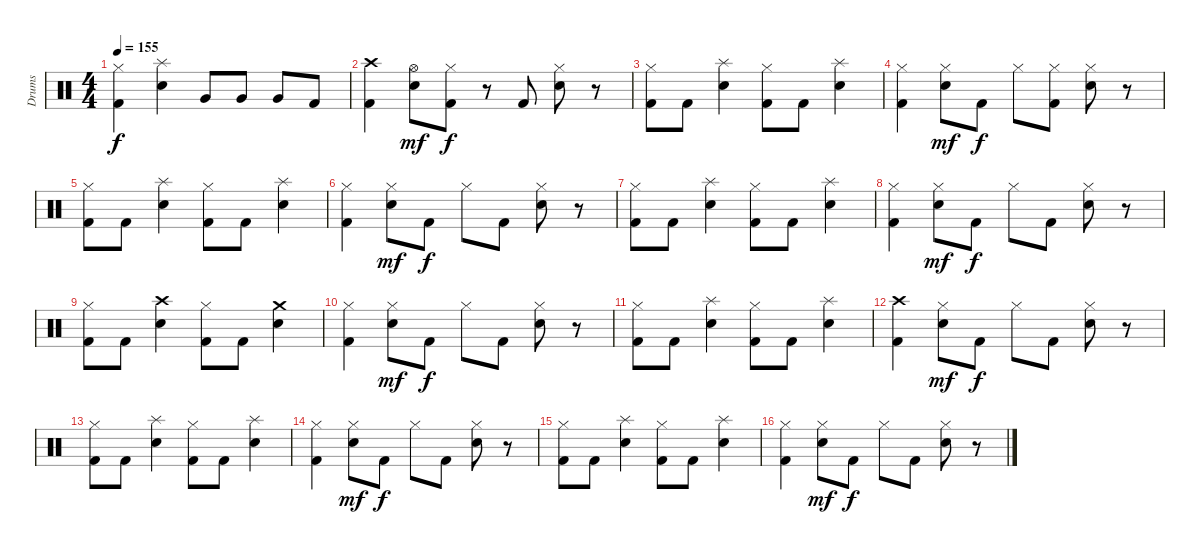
\track ("Drums" "Drums") {instrument percussion}
\staff {score}
\articulation defaults
\ts (4 4)
\tempo 155
\clef neutral
\ks c
("Hi-Hat (closed)" "Kick (hit) 2").4{dy f} ("Splash (hit)" "Snare (hit) 2").4 "Very Low Tom (hit)".8 "Very Low Tom (hit)".8 "Very Low Tom (hit)".8 "Kick (hit) 2".8 |
("Crash high (hit)" "Kick (hit) 2").4 ("Hi-Hat (open)" "Snare (hit) 2").8{dy mf} ("Hi-Hat (closed)" "Kick (hit) 2").8{dy f} r.8 "Kick (hit) 2".8 ("Hi-Hat (closed)" "Snare (hit) 2").8 r.8 |
("Hi-Hat (closed)" "Kick (hit) 2").8 "Kick (hit) 2".8 ("Splash (hit)" "Snare (hit) 2").4 ("Hi-Hat (closed)" "Kick (hit) 2").8 "Kick (hit) 2".8 ("Splash (hit)" "Snare (hit) 2").4 |
("Hi-Hat (closed)" "Kick (hit) 2").4 ("Hi-Hat (closed)" "Snare (hit) 2").8{dy mf} "Kick (hit) 2".8{dy f} "Hi-Hat (closed)".8 ("Hi-Hat (closed)" "Kick (hit) 2").8 ("Hi-Hat (closed)" "Snare (hit) 2").8 r.8 |
("Hi-Hat (closed)" "Kick (hit) 2").8 "Kick (hit) 2".8 ("Splash (hit)" "Snare (hit) 2").4 ("Hi-Hat (closed)" "Kick (hit) 2").8 "Kick (hit) 2".8 ("Splash (hit)" "Snare (hit) 2").4 |
("Hi-Hat (closed)" "Kick (hit) 2").4 ("Hi-Hat (closed)" "Snare (hit) 2").8{dy mf} "Kick (hit) 2".8{dy f} "Hi-Hat (closed)".8 "Kick (hit) 2".8 ("Hi-Hat (closed)" "Snare (hit) 2").8 r.8 |
("Hi-Hat (closed)" "Kick (hit) 2").8 "Kick (hit) 2".8 ("Splash (hit)" "Snare (hit) 2").4 ("Hi-Hat (closed)" "Kick (hit) 2").8 "Kick (hit) 2".8 ("Splash (hit)" "Snare (hit) 2").4 |
("Hi-Hat (closed)" "Kick (hit) 2").4 ("Hi-Hat (closed)" "Snare (hit) 2").8{dy mf} "Kick (hit) 2".8{dy f} "Hi-Hat (closed)".8 "Kick (hit) 2".8 ("Hi-Hat (closed)" "Snare (hit) 2").8 r.8 |
("Hi-Hat (closed)" "Kick (hit) 2").8 "Kick (hit) 2".8 ("Crash high (hit)" "Snare (hit) 2").4 ("Hi-Hat (closed)" "Kick (hit) 2").8 "Kick (hit) 2".8 ("Crash medium (hit)" "Snare (hit) 2").4 |
("Hi-Hat (closed)" "Kick (hit) 2").4 ("Hi-Hat (closed)" "Snare (hit) 2").8{dy mf} "Kick (hit) 2".8{dy f} "Hi-Hat (closed)".8 "Kick (hit) 2".8 ("Hi-Hat (closed)" "Snare (hit) 2").8 r.8 |
("Hi-Hat (closed)" "Kick (hit) 2").8 "Kick (hit) 2".8 ("Splash (hit)" "Snare (hit) 2").4 ("Hi-Hat (closed)" "Kick (hit) 2").8 "Kick (hit) 2".8 ("Splash (hit)" "Snare (hit) 2").4 |
("Crash high (hit)" "Kick (hit) 2").4 ("Hi-Hat (closed)" "Snare (hit) 2").8{dy mf} "Kick (hit) 2".8{dy f} "Hi-Hat (closed)".8 "Kick (hit) 2".8 ("Hi-Hat (closed)" "Snare (hit) 2").8 r.8 |
("Hi-Hat (closed)" "Kick (hit) 2").8 "Kick (hit) 2".8 ("Splash (hit)" "Snare (hit) 2").4 ("Hi-Hat (closed)" "Kick (hit) 2").8 "Kick (hit) 2".8 ("Splash (hit)" "Snare (hit) 2").4 |
("Hi-Hat (closed)" "Kick (hit) 2").4 ("Hi-Hat (closed)" "Snare (hit) 2").8{dy mf} "Kick (hit) 2".8{dy f} "Hi-Hat (closed)".8 "Kick (hit) 2".8 ("Hi-Hat (closed)" "Snare (hit) 2").8 r.8 |
("Hi-Hat (closed)" "Kick (hit) 2").8 "Kick (hit) 2".8 ("Splash (hit)" "Snare (hit) 2").4 ("Hi-Hat (closed)" "Kick (hit) 2").8 "Kick (hit) 2".8 ("Splash (hit)" "Snare (hit) 2").4 |
("Hi-Hat (closed)" "Kick (hit) 2").4 ("Hi-Hat (closed)" "Snare (hit) 2").8{dy mf} "Kick (hit) 2".8{dy f} "Hi-Hat (closed)".8 "Kick (hit) 2".8 ("Hi-Hat (closed)" "Snare (hit) 2").8 r.8
